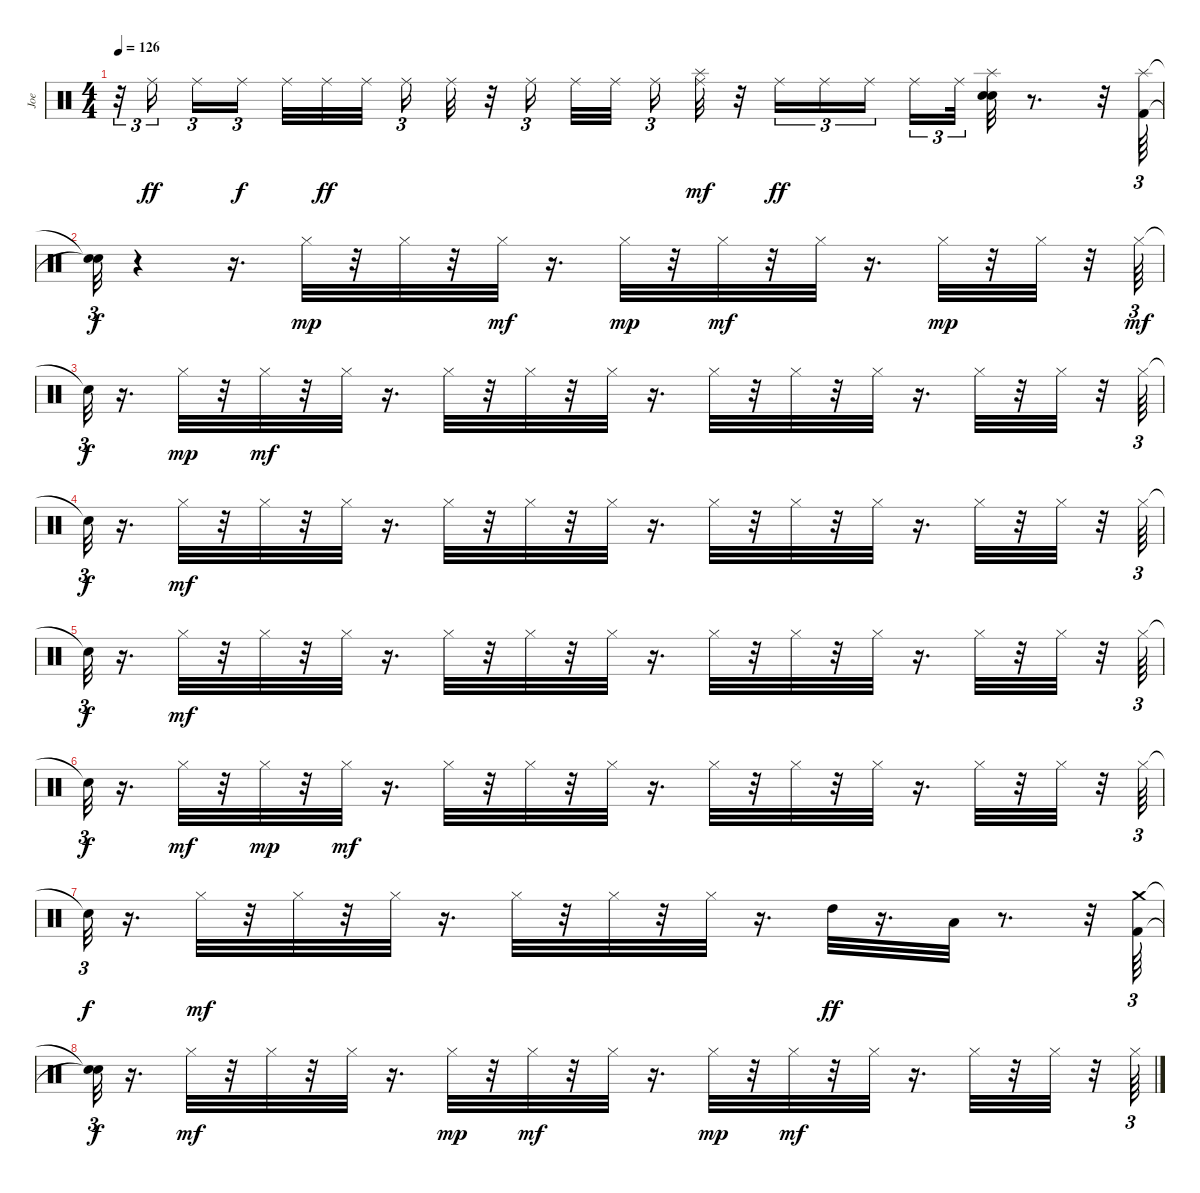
\track ("Joe" "Joe") {instrument percussion}
\staff {score}
\articulation defaults
\ts (4 4)
\tempo 126
\clef neutral
\ks c
r.32{tu (3 2) dy ff} "Ride (middle)".16{tu (3 2) beam splitsecondary} "Ride (middle)".16{tu (3 2)} "Ride (middle)".16{tu (3 2) dy f beam splitsecondary} "Ride (middle)".32 "Ride (middle)".32{dy ff} "Ride (middle)".32{beam splitsecondary} "Ride (middle)".16{tu (3 2)} "Ride (middle)".32 r.32 "Ride (middle)".16{tu (3 2) beam splitsecondary} "Ride (middle)".32 "Ride (middle)".32{beam splitsecondary} "Ride (middle)".16{tu (3 2)} ("Ride (middle)" "Splash (hit)").32{dy mf} r.32 "Ride (middle)".16{tu (3 2) dy ff} "Ride (middle)".16{tu (3 2)} "Ride (middle)".16{tu (3 2) beam splitsecondary} "Ride (middle)".16{tu (3 2)} "Ride (middle)".32{tu (3 2)} ("Electric Snare (hit)" "Splash (hit)" "Electric Snare (hit)").32 r.8{d} r.32 ("Kick (hit) 2" "Splash (hit)").64{tu (3 2)} |
("Snare (hit)"{t} "Snare (hit)"{t}).32{tu (3 2) dy f} r.4 r.16{d} "Hi-Hat (closed)".32{dy mp} r.32 "Hi-Hat (closed)".32 r.32 "Hi-Hat (closed)".32{dy mf} r.16{d} "Hi-Hat (closed)".32{dy mp} r.32 "Hi-Hat (closed)".32{dy mf} r.32 "Hi-Hat (closed)".32 r.16{d} "Hi-Hat (closed)".32{dy mp} r.32 "Hi-Hat (closed)".32 r.32 "Hi-Hat (closed)".64{tu (3 2) dy mf} |
"Snare (hit)"{t}.32{tu (3 2) dy f} r.16{d} "Hi-Hat (closed)".32{dy mp} r.32 "Hi-Hat (closed)".32{dy mf} r.32 "Hi-Hat (closed)".32 r.16{d} "Hi-Hat (closed)".32 r.32 "Hi-Hat (closed)".32 r.32 "Hi-Hat (closed)".32 r.16{d} "Hi-Hat (closed)".32 r.32 "Hi-Hat (closed)".32 r.32 "Hi-Hat (closed)".32 r.16{d} "Hi-Hat (closed)".32 r.32 "Hi-Hat (closed)".32 r.32 "Hi-Hat (closed)".64{tu (3 2)} |
"Snare (hit)"{t}.32{tu (3 2) dy f} r.16{d} "Hi-Hat (closed)".32{dy mf} r.32 "Hi-Hat (closed)".32 r.32 "Hi-Hat (closed)".32 r.16{d} "Hi-Hat (closed)".32 r.32 "Hi-Hat (closed)".32 r.32 "Hi-Hat (closed)".32 r.16{d} "Hi-Hat (closed)".32 r.32 "Hi-Hat (closed)".32 r.32 "Hi-Hat (closed)".32 r.16{d} "Hi-Hat (closed)".32 r.32 "Hi-Hat (closed)".32 r.32 "Hi-Hat (closed)".64{tu (3 2)} |
"Snare (hit)"{t}.32{tu (3 2) dy f} r.16{d} "Hi-Hat (closed)".32{dy mf} r.32 "Hi-Hat (closed)".32 r.32 "Hi-Hat (closed)".32 r.16{d} "Hi-Hat (closed)".32 r.32 "Hi-Hat (closed)".32 r.32 "Hi-Hat (closed)".32 r.16{d} "Hi-Hat (closed)".32 r.32 "Hi-Hat (closed)".32 r.32 "Hi-Hat (closed)".32 r.16{d} "Hi-Hat (closed)".32 r.32 "Hi-Hat (closed)".32 r.32 "Hi-Hat (closed)".64{tu (3 2)} |
"Snare (hit)"{t}.32{tu (3 2) dy f} r.16{d} "Hi-Hat (closed)".32{dy mf} r.32 "Hi-Hat (closed)".32{dy mp} r.32 "Hi-Hat (closed)".32{dy mf} r.16{d} "Hi-Hat (closed)".32 r.32 "Hi-Hat (closed)".32 r.32 "Hi-Hat (closed)".32 r.16{d} "Hi-Hat (closed)".32 r.32 "Hi-Hat (closed)".32 r.32 "Hi-Hat (closed)".32 r.16{d} "Hi-Hat (closed)".32 r.32 "Hi-Hat (closed)".32 r.32 "Hi-Hat (closed)".64{tu (3 2)} |
"Snare (hit)"{t}.32{tu (3 2) dy f} r.16{d} "Hi-Hat (closed)".32{dy mf} r.32 "Hi-Hat (closed)".32 r.32 "Hi-Hat (closed)".32 r.16{d} "Hi-Hat (closed)".32 r.32 "Hi-Hat (closed)".32 r.32 "Hi-Hat (closed)".32 r.16{d} "High Tom (hit)".32{dy ff} r.16{d} "Low Tom (hit)".32 r.8{d} r.32 ("Kick (hit) 2" "Crash medium (hit)").64{tu (3 2)} |
("Snare (hit)"{t} "Snare (hit)"{t}).32{tu (3 2) dy f} r.16{d} "Hi-Hat (closed)".32{dy mf} r.32 "Hi-Hat (closed)".32 r.32 "Hi-Hat (closed)".32 r.16{d} "Hi-Hat (closed)".32{dy mp} r.32 "Hi-Hat (closed)".32{dy mf} r.32 "Hi-Hat (closed)".32 r.16{d} "Hi-Hat (closed)".32{dy mp} r.32 "Hi-Hat (closed)".32{dy mf} r.32 "Hi-Hat (closed)".32 r.16{d} "Hi-Hat (closed)".32 r.32 "Hi-Hat (closed)".32 r.32 "Hi-Hat (closed)".64{tu (3 2)}
